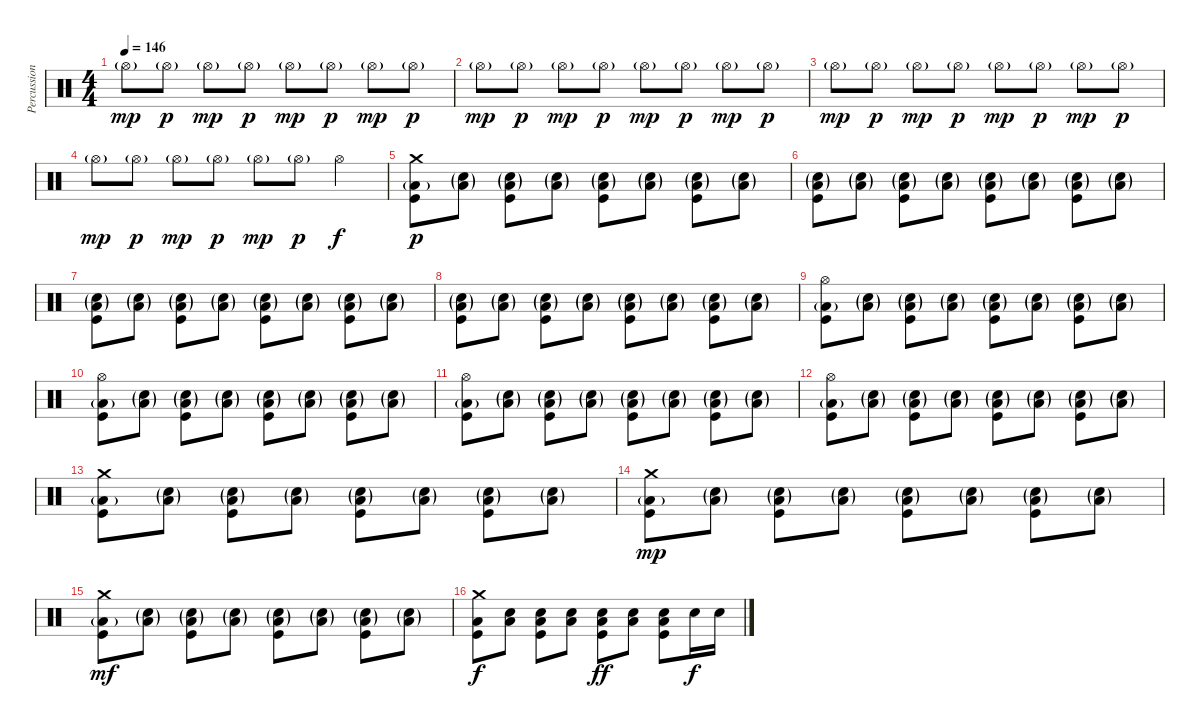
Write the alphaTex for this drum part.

\track ("Percussion" "Percussion") {instrument percussion}
\staff {score}
\articulation defaults
\ts (4 4)
\tempo 146
\clef neutral
\ks c "Hi-Hat (open)"{g}.8{dy mp} "Hi-Hat (open)"{g}.8{dy p} "Hi-Hat (open)"{g}.8{dy mp} "Hi-Hat (open)"{g}.8{dy p} "Hi-Hat (open)"{g}.8{dy mp} "Hi-Hat (open)"{g}.8{dy p} "Hi-Hat (open)"{g}.8{dy mp} "Hi-Hat (open)"{g}.8{dy p}
|
"Hi-Hat (open)"{g}.8{dy mp} "Hi-Hat (open)"{g}.8{dy p} "Hi-Hat (open)"{g}.8{dy mp} "Hi-Hat (open)"{g}.8{dy p} "Hi-Hat (open)"{g}.8{dy mp} "Hi-Hat (open)"{g}.8{dy p} "Hi-Hat (open)"{g}.8{dy mp} "Hi-Hat (open)"{g}.8{dy p} |
"Hi-Hat (open)"{g}.8{dy mp} "Hi-Hat (open)"{g}.8{dy p} "Hi-Hat (open)"{g}.8{dy mp} "Hi-Hat (open)"{g}.8{dy p} "Hi-Hat (open)"{g}.8{dy mp} "Hi-Hat (open)"{g}.8{dy p} "Hi-Hat (open)"{g}.8{dy mp} "Hi-Hat (open)"{g}.8{dy p} |
"Hi-Hat (open)"{g}.8{dy mp} "Hi-Hat (open)"{g}.8{dy p} "Hi-Hat (open)"{g}.8{dy mp} "Hi-Hat (open)"{g}.8{dy p} "Hi-Hat (open)"{g}.8{dy mp} "Hi-Hat (open)"{g}.8{dy p} "Hi-Hat (open)".4{dy f} |
("Crash medium (hit)" "Low Floor Tom (hit)"{g} "Kick (hit)").8{dy p} ("Low Floor Tom (hit)"{g} "Snare (hit) 2"{g}).8 ("Low Floor Tom (hit)"{g} "Snare (hit) 2"{g} "Kick (hit)").8 ("Low Floor Tom (hit)"{g} "Snare (hit) 2"{g}).8 ("Low Floor Tom (hit)"{g} "Snare (hit) 2"{g} "Kick (hit)").8 ("Low Floor Tom (hit)"{g} "Snare (hit) 2"{g}).8 ("Low Floor Tom (hit)"{g} "Snare (hit) 2"{g} "Kick (hit)").8 ("Low Floor Tom (hit)"{g} "Snare (hit) 2"{g}).8 |
("Low Floor Tom (hit)"{g} "Snare (hit) 2"{g} "Kick (hit)").8 ("Low Floor Tom (hit)"{g} "Snare (hit) 2"{g}).8 ("Low Floor Tom (hit)"{g} "Snare (hit) 2"{g} "Kick (hit)").8 ("Low Floor Tom (hit)"{g} "Snare (hit) 2"{g}).8 ("Low Floor Tom (hit)"{g} "Snare (hit) 2"{g} "Kick (hit)").8 ("Low Floor Tom (hit)"{g} "Snare (hit) 2"{g}).8 ("Low Floor Tom (hit)"{g} "Snare (hit) 2"{g} "Kick (hit)").8 ("Low Floor Tom (hit)"{g} "Snare (hit) 2"{g}).8 |
("Low Floor Tom (hit)"{g} "Snare (hit) 2"{g} "Kick (hit)").8 ("Low Floor Tom (hit)"{g} "Snare (hit) 2"{g}).8 ("Low Floor Tom (hit)"{g} "Snare (hit) 2"{g} "Kick (hit)").8 ("Low Floor Tom (hit)"{g} "Snare (hit) 2"{g}).8 ("Low Floor Tom (hit)"{g} "Snare (hit) 2"{g} "Kick (hit)").8 ("Low Floor Tom (hit)"{g} "Snare (hit) 2"{g}).8 ("Low Floor Tom (hit)"{g} "Snare (hit) 2"{g} "Kick (hit)").8 ("Low Floor Tom (hit)"{g} "Snare (hit) 2"{g}).8 |
("Low Floor Tom (hit)"{g} "Snare (hit) 2"{g} "Kick (hit)").8 ("Low Floor Tom (hit)"{g} "Snare (hit) 2"{g}).8 ("Low Floor Tom (hit)"{g} "Snare (hit) 2"{g} "Kick (hit)").8 ("Low Floor Tom (hit)"{g} "Snare (hit) 2"{g}).8 ("Low Floor Tom (hit)"{g} "Snare (hit) 2"{g} "Kick (hit)").8 ("Low Floor Tom (hit)"{g} "Snare (hit) 2"{g}).8 ("Low Floor Tom (hit)"{g} "Snare (hit) 2"{g} "Kick (hit)").8 ("Low Floor Tom (hit)"{g} "Snare (hit) 2"{g}).8 |
("Hi-Hat (open)" "Low Floor Tom (hit)"{g} "Kick (hit)").8 ("Low Floor Tom (hit)"{g} "Snare (hit) 2"{g}).8 ("Low Floor Tom (hit)"{g} "Snare (hit) 2"{g} "Kick (hit)").8 ("Low Floor Tom (hit)"{g} "Snare (hit) 2"{g}).8 ("Low Floor Tom (hit)"{g} "Snare (hit) 2"{g} "Kick (hit)").8 ("Low Floor Tom (hit)"{g} "Snare (hit) 2"{g}).8 ("Low Floor Tom (hit)"{g} "Snare (hit) 2"{g} "Kick (hit)").8 ("Low Floor Tom (hit)"{g} "Snare (hit) 2"{g}).8 |
("Hi-Hat (open)" "Low Floor Tom (hit)"{g} "Kick (hit)").8 ("Low Floor Tom (hit)"{g} "Snare (hit) 2"{g}).8 ("Low Floor Tom (hit)"{g} "Snare (hit) 2"{g} "Kick (hit)").8 ("Low Floor Tom (hit)"{g} "Snare (hit) 2"{g}).8 ("Low Floor Tom (hit)"{g} "Snare (hit) 2"{g} "Kick (hit)").8 ("Low Floor Tom (hit)"{g} "Snare (hit) 2"{g}).8 ("Low Floor Tom (hit)"{g} "Snare (hit) 2"{g} "Kick (hit)").8 ("Low Floor Tom (hit)"{g} "Snare (hit) 2"{g}).8 |
("Hi-Hat (open)" "Low Floor Tom (hit)"{g} "Kick (hit)").8 ("Low Floor Tom (hit)"{g} "Snare (hit) 2"{g}).8 ("Low Floor Tom (hit)"{g} "Snare (hit) 2"{g} "Kick (hit)").8 ("Low Floor Tom (hit)"{g} "Snare (hit) 2"{g}).8 ("Low Floor Tom (hit)"{g} "Snare (hit) 2"{g} "Kick (hit)").8 ("Low Floor Tom (hit)"{g} "Snare (hit) 2"{g}).8 ("Low Floor Tom (hit)"{g} "Snare (hit) 2"{g} "Kick (hit)").8 ("Low Floor Tom (hit)"{g} "Snare (hit) 2"{g}).8 |
("Hi-Hat (open)" "Low Floor Tom (hit)"{g} "Kick (hit)").8 ("Low Floor Tom (hit)"{g} "Snare (hit) 2"{g}).8 ("Low Floor Tom (hit)"{g} "Snare (hit) 2"{g} "Kick (hit)").8 ("Low Floor Tom (hit)"{g} "Snare (hit) 2"{g}).8 ("Low Floor Tom (hit)"{g} "Snare (hit) 2"{g} "Kick (hit)").8 ("Low Floor Tom (hit)"{g} "Snare (hit) 2"{g}).8 ("Low Floor Tom (hit)"{g} "Snare (hit) 2"{g} "Kick (hit)").8 ("Low Floor Tom (hit)"{g} "Snare (hit) 2"{g}).8 |
("Crash medium (hit)" "Low Floor Tom (hit)"{g} "Kick (hit)").8 ("Low Floor Tom (hit)"{g} "Snare (hit) 2"{g}).8 ("Low Floor Tom (hit)"{g} "Snare (hit) 2"{g} "Kick (hit)").8 ("Low Floor Tom (hit)"{g} "Snare (hit) 2"{g}).8 ("Low Floor Tom (hit)"{g} "Snare (hit) 2"{g} "Kick (hit)").8 ("Low Floor Tom (hit)"{g} "Snare (hit) 2"{g}).8 ("Low Floor Tom (hit)"{g} "Snare (hit) 2"{g} "Kick (hit)").8 ("Low Floor Tom (hit)"{g} "Snare (hit) 2"{g}).8 |
("Crash medium (hit)" "Low Floor Tom (hit)"{g} "Kick (hit)").8{dy mp} ("Low Floor Tom (hit)"{g} "Snare (hit) 2"{g}).8 ("Low Floor Tom (hit)"{g} "Snare (hit) 2"{g} "Kick (hit)").8 ("Low Floor Tom (hit)"{g} "Snare (hit) 2"{g}).8 ("Low Floor Tom (hit)"{g} "Snare (hit) 2"{g} "Kick (hit)").8 ("Low Floor Tom (hit)"{g} "Snare (hit) 2"{g}).8 ("Low Floor Tom (hit)"{g} "Snare (hit) 2"{g} "Kick (hit)").8 ("Low Floor Tom (hit)"{g} "Snare (hit) 2"{g}).8 |
("Crash medium (hit)" "Low Floor Tom (hit)"{g} "Kick (hit)").8{dy mf} ("Low Floor Tom (hit)"{g} "Snare (hit) 2"{g}).8 ("Low Floor Tom (hit)"{g} "Snare (hit) 2"{g} "Kick (hit)").8 ("Low Floor Tom (hit)"{g} "Snare (hit) 2"{g}).8 ("Low Floor Tom (hit)"{g} "Snare (hit) 2"{g} "Kick (hit)").8 ("Low Floor Tom (hit)"{g} "Snare (hit) 2"{g}).8 ("Low Floor Tom (hit)"{g} "Snare (hit) 2"{g} "Kick (hit)").8 ("Low Floor Tom (hit)"{g} "Snare (hit) 2"{g}).8 |
("Crash medium (hit)" "Low Floor Tom (hit)" "Kick (hit)").8{dy f} ("Low Floor Tom (hit)" "Snare (hit) 2").8 ("Low Floor Tom (hit)" "Snare (hit) 2" "Kick (hit)").8 ("Low Floor Tom (hit)" "Snare (hit) 2").8 ("Low Floor Tom (hit)" "Snare (hit) 2" "Kick (hit)").8{dy ff} ("Low Floor Tom (hit)" "Snare (hit) 2").8 ("Low Floor Tom (hit)" "Snare (hit) 2" "Kick (hit)").8 "Snare (hit) 2".16{dy f} "Snare (hit) 2".16
